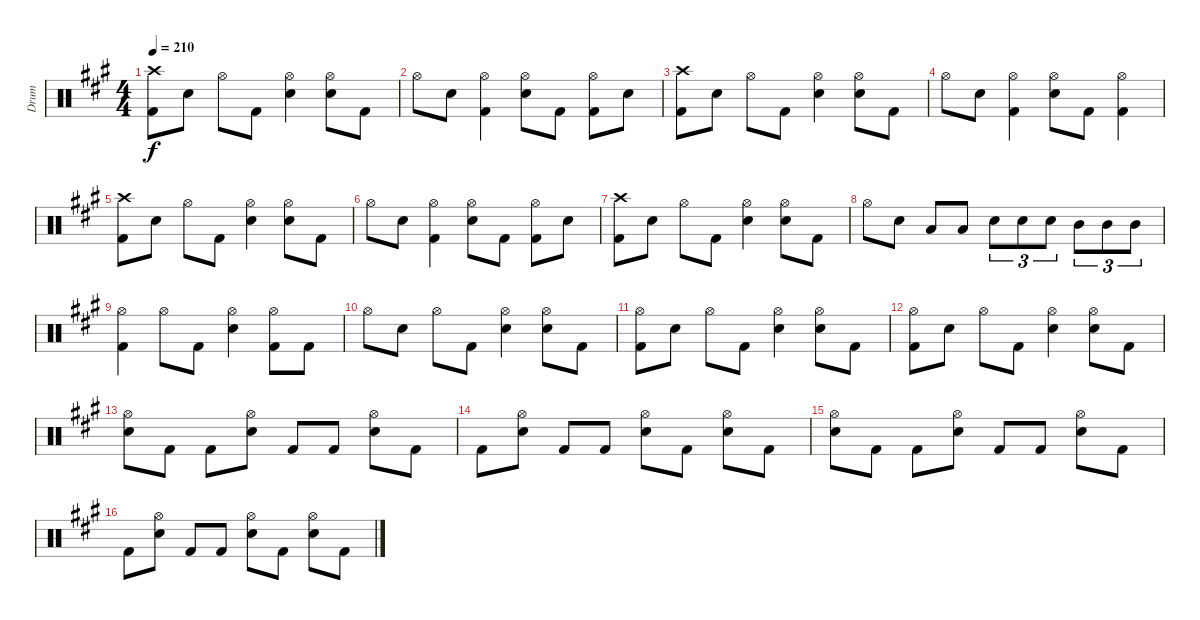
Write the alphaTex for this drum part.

\track ("Drum" "Drum") {instrument percussion}
\staff {score}
\articulation defaults
\ts (4 4)
\tempo 210
\clef neutral
\ks a
("Crash high (hit)" "Kick (hit) 2").8{dy f} "Electric Snare (hit)".8 "Hi-Hat (open)".8 "Kick (hit) 2".8 ("Hi-Hat (open)" "Electric Snare (hit)").4 ("Hi-Hat (open)" "Electric Snare (hit)").8 "Kick (hit) 2".8 |
"Hi-Hat (open)".8 "Electric Snare (hit)".8 ("Hi-Hat (open)" "Kick (hit) 2").4 ("Hi-Hat (open)" "Electric Snare (hit)").8 "Kick (hit) 2".8 ("Hi-Hat (open)" "Kick (hit) 2").8 "Electric Snare (hit)".8 |
("Crash high (hit)" "Kick (hit) 2").8 "Electric Snare (hit)".8 "Hi-Hat (open)".8 "Kick (hit) 2".8 ("Hi-Hat (open)" "Electric Snare (hit)").4 ("Hi-Hat (open)" "Electric Snare (hit)").8 "Kick (hit) 2".8 |
"Hi-Hat (open)".8 "Electric Snare (hit)".8 ("Hi-Hat (open)" "Kick (hit) 2").4 ("Hi-Hat (open)" "Electric Snare (hit)").8 "Kick (hit) 2".8 ("Hi-Hat (open)" "Kick (hit) 2").4 |
("Crash high (hit)" "Kick (hit) 2").8 "Electric Snare (hit)".8 "Hi-Hat (open)".8 "Kick (hit) 2".8 ("Hi-Hat (open)" "Electric Snare (hit)").4 ("Hi-Hat (open)" "Electric Snare (hit)").8 "Kick (hit) 2".8 |
"Hi-Hat (open)".8 "Electric Snare (hit)".8 ("Hi-Hat (open)" "Kick (hit) 2").4 ("Hi-Hat (open)" "Electric Snare (hit)").8 "Kick (hit) 2".8 ("Hi-Hat (open)" "Kick (hit) 2").8 "Electric Snare (hit)".8 |
("Crash high (hit)" "Kick (hit) 2").8 "Electric Snare (hit)".8 "Hi-Hat (open)".8 "Kick (hit) 2".8 ("Hi-Hat (open)" "Electric Snare (hit)").4 ("Hi-Hat (open)" "Electric Snare (hit)").8 "Kick (hit) 2".8 |
"Hi-Hat (open)".8 "Electric Snare (hit)".8 "Low Tom (hit)".8 "Low Tom (hit)".8 "Electric Snare (hit)".8{tu (3 2)} "Electric Snare (hit)".8{tu (3 2)} "Electric Snare (hit)".8{tu (3 2)} "Mid Tom (hit)".8{tu (3 2)} "Mid Tom (hit)".8{tu (3 2)} "Mid Tom (hit)".8{tu (3 2)} |
("Hi-Hat (open)" "Kick (hit) 2").4 "Hi-Hat (open)".8 "Kick (hit) 2".8 ("Hi-Hat (open)" "Electric Snare (hit)").4 ("Hi-Hat (open)" "Kick (hit) 2").8 "Kick (hit) 2".8 |
"Hi-Hat (open)".8 "Electric Snare (hit)".8 "Hi-Hat (open)".8 "Kick (hit) 2".8 ("Hi-Hat (open)" "Electric Snare (hit)").4 ("Hi-Hat (open)" "Electric Snare (hit)").8 "Kick (hit) 2".8 |
("Hi-Hat (open)" "Kick (hit) 2").8 "Electric Snare (hit)".8 "Hi-Hat (open)".8 "Kick (hit) 2".8 ("Hi-Hat (open)" "Electric Snare (hit)").4 ("Hi-Hat (open)" "Electric Snare (hit)").8 "Kick (hit) 2".8 |
("Hi-Hat (open)" "Kick (hit) 2").8 "Electric Snare (hit)".8 "Hi-Hat (open)".8 "Kick (hit) 2".8 ("Hi-Hat (open)" "Electric Snare (hit)").4 ("Hi-Hat (open)" "Electric Snare (hit)").8 "Kick (hit) 2".8 |
("Hi-Hat (open)" "Electric Snare (hit)").8 "Kick (hit) 2".8 "Kick (hit) 2".8 ("Hi-Hat (open)" "Electric Snare (hit)").8 "Kick (hit) 2".8 "Kick (hit) 2".8 ("Hi-Hat (open)" "Electric Snare (hit)").8 "Kick (hit) 2".8 |
"Kick (hit) 2".8 ("Hi-Hat (open)" "Electric Snare (hit)").8 "Kick (hit) 2".8 "Kick (hit) 2".8 ("Hi-Hat (open)" "Electric Snare (hit)").8 "Kick (hit) 2".8 ("Hi-Hat (open)" "Electric Snare (hit)").8 "Kick (hit) 2".8 |
("Hi-Hat (open)" "Electric Snare (hit)").8 "Kick (hit) 2".8 "Kick (hit) 2".8 ("Hi-Hat (open)" "Electric Snare (hit)").8 "Kick (hit) 2".8 "Kick (hit) 2".8 ("Hi-Hat (open)" "Electric Snare (hit)").8 "Kick (hit) 2".8 |
"Kick (hit) 2".8 ("Hi-Hat (open)" "Electric Snare (hit)").8 "Kick (hit) 2".8 "Kick (hit) 2".8 ("Hi-Hat (open)" "Electric Snare (hit)").8 "Kick (hit) 2".8 ("Hi-Hat (open)" "Electric Snare (hit)").8 "Kick (hit) 2".8
